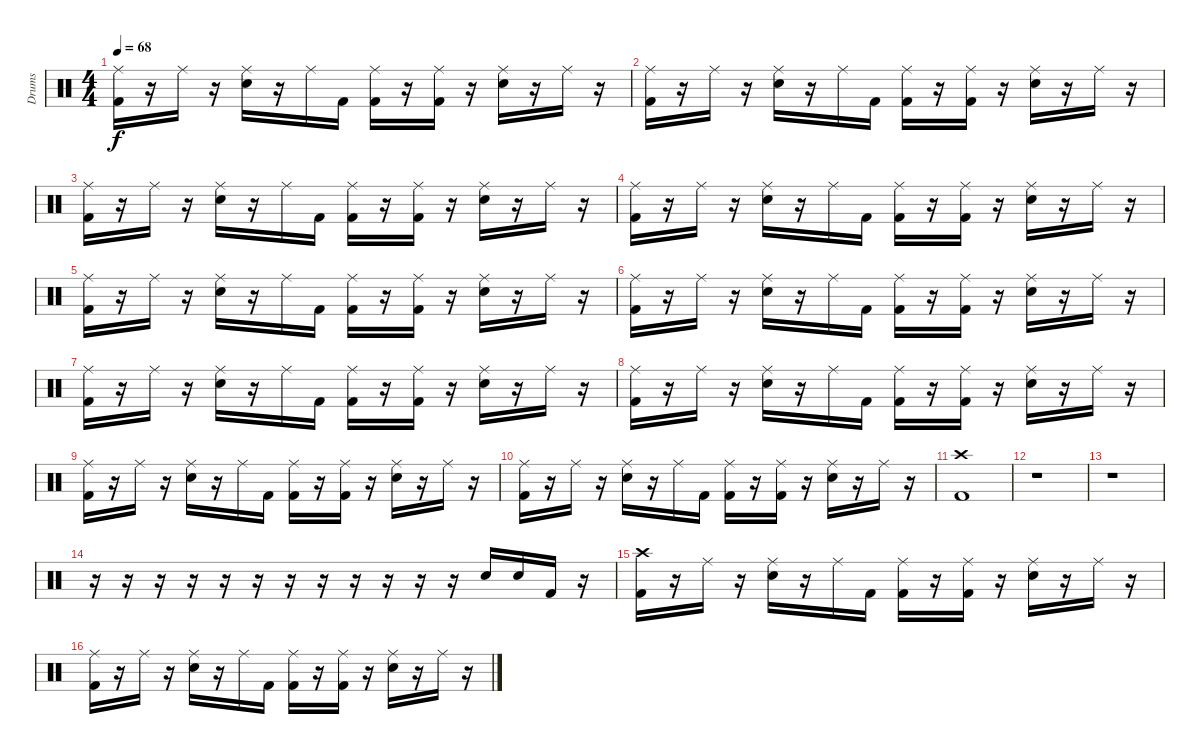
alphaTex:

\track ("Drums" "Drums") {instrument percussion}
\staff {score}
\articulation defaults
\ts (4 4)
\tempo 68
\clef neutral
\ks c
("Ride (middle)" "Kick (hit) 2").16{dy f} r.16 "Ride (middle)".16 r.16 ("Ride (middle)" "Snare (hit) 2").16 r.16 "Ride (middle)".16 "Kick (hit) 2".16 ("Ride (middle)" "Kick (hit) 2").16 r.16 ("Ride (middle)" "Kick (hit) 2").16 r.16 ("Ride (middle)" "Snare (hit) 2").16 r.16 "Ride (middle)".16 r.16 |
("Ride (middle)" "Kick (hit) 2").16 r.16 "Ride (middle)".16 r.16 ("Ride (middle)" "Snare (hit) 2").16 r.16 "Ride (middle)".16 "Kick (hit) 2".16 ("Ride (middle)" "Kick (hit) 2").16 r.16 ("Ride (middle)" "Kick (hit) 2").16 r.16 ("Ride (middle)" "Snare (hit) 2").16 r.16 "Ride (middle)".16 r.16 |
("Ride (middle)" "Kick (hit) 2").16 r.16 "Ride (middle)".16 r.16 ("Ride (middle)" "Snare (hit) 2").16 r.16 "Ride (middle)".16 "Kick (hit) 2".16 ("Ride (middle)" "Kick (hit) 2").16 r.16 ("Ride (middle)" "Kick (hit) 2").16 r.16 ("Ride (middle)" "Snare (hit) 2").16 r.16 "Ride (middle)".16 r.16 |
("Ride (middle)" "Kick (hit) 2").16 r.16 "Ride (middle)".16 r.16 ("Ride (middle)" "Snare (hit) 2").16 r.16 "Ride (middle)".16 "Kick (hit) 2".16 ("Ride (middle)" "Kick (hit) 2").16 r.16 ("Ride (middle)" "Kick (hit) 2").16 r.16 ("Ride (middle)" "Snare (hit) 2").16 r.16 "Ride (middle)".16 r.16 |
("Ride (middle)" "Kick (hit) 2").16 r.16 "Ride (middle)".16 r.16 ("Ride (middle)" "Snare (hit) 2").16 r.16 "Ride (middle)".16 "Kick (hit) 2".16 ("Ride (middle)" "Kick (hit) 2").16 r.16 ("Ride (middle)" "Kick (hit) 2").16 r.16 ("Ride (middle)" "Snare (hit) 2").16 r.16 "Ride (middle)".16 r.16 |
("Ride (middle)" "Kick (hit) 2").16 r.16 "Ride (middle)".16 r.16 ("Ride (middle)" "Snare (hit) 2").16 r.16 "Ride (middle)".16 "Kick (hit) 2".16 ("Ride (middle)" "Kick (hit) 2").16 r.16 ("Ride (middle)" "Kick (hit) 2").16 r.16 ("Ride (middle)" "Snare (hit) 2").16 r.16 "Ride (middle)".16 r.16 |
("Ride (middle)" "Kick (hit) 2").16 r.16 "Ride (middle)".16 r.16 ("Ride (middle)" "Snare (hit) 2").16 r.16 "Ride (middle)".16 "Kick (hit) 2".16 ("Ride (middle)" "Kick (hit) 2").16 r.16 ("Ride (middle)" "Kick (hit) 2").16 r.16 ("Ride (middle)" "Snare (hit) 2").16 r.16 "Ride (middle)".16 r.16 |
("Ride (middle)" "Kick (hit) 2").16 r.16 "Ride (middle)".16 r.16 ("Ride (middle)" "Snare (hit) 2").16 r.16 "Ride (middle)".16 "Kick (hit) 2".16 ("Ride (middle)" "Kick (hit) 2").16 r.16 ("Ride (middle)" "Kick (hit) 2").16 r.16 ("Ride (middle)" "Snare (hit) 2").16 r.16 "Ride (middle)".16 r.16 |
("Ride (middle)" "Kick (hit) 2").16 r.16 "Ride (middle)".16 r.16 ("Ride (middle)" "Snare (hit) 2").16 r.16 "Ride (middle)".16 "Kick (hit) 2".16 ("Ride (middle)" "Kick (hit) 2").16 r.16 ("Ride (middle)" "Kick (hit) 2").16 r.16 ("Ride (middle)" "Snare (hit) 2").16 r.16 "Ride (middle)".16 r.16 |
("Ride (middle)" "Kick (hit) 2").16 r.16 "Ride (middle)".16 r.16 ("Ride (middle)" "Snare (hit) 2").16 r.16 "Ride (middle)".16 "Kick (hit) 2".16 ("Ride (middle)" "Kick (hit) 2").16 r.16 ("Ride (middle)" "Kick (hit) 2").16 r.16 ("Ride (middle)" "Snare (hit) 2").16 r.16 "Ride (middle)".16 r.16 |
("Crash high (hit)" "Kick (hit) 2").1 |
r.1 |
r.1 |
r.16 r.16 r.16 r.16 r.16 r.16 r.16 r.16 r.16 r.16 r.16 r.16 "Snare (hit) 2".16 "Snare (hit) 2".16 "Kick (hit) 2".16 r.16 |
("Crash high (hit)" "Kick (hit) 2").16 r.16 "Ride (middle)".16 r.16 ("Ride (middle)" "Snare (hit) 2").16 r.16 "Ride (middle)".16 "Kick (hit) 2".16 ("Ride (middle)" "Kick (hit) 2").16 r.16 ("Ride (middle)" "Kick (hit) 2").16 r.16 ("Ride (middle)" "Snare (hit) 2").16 r.16 "Ride (middle)".16 r.16 |
("Ride (middle)" "Kick (hit) 2").16 r.16 "Ride (middle)".16 r.16 ("Ride (middle)" "Snare (hit) 2").16 r.16 "Ride (middle)".16 "Kick (hit) 2".16 ("Ride (middle)" "Kick (hit) 2").16 r.16 ("Ride (middle)" "Kick (hit) 2").16 r.16 ("Ride (middle)" "Snare (hit) 2").16 r.16 "Ride (middle)".16 r.16
